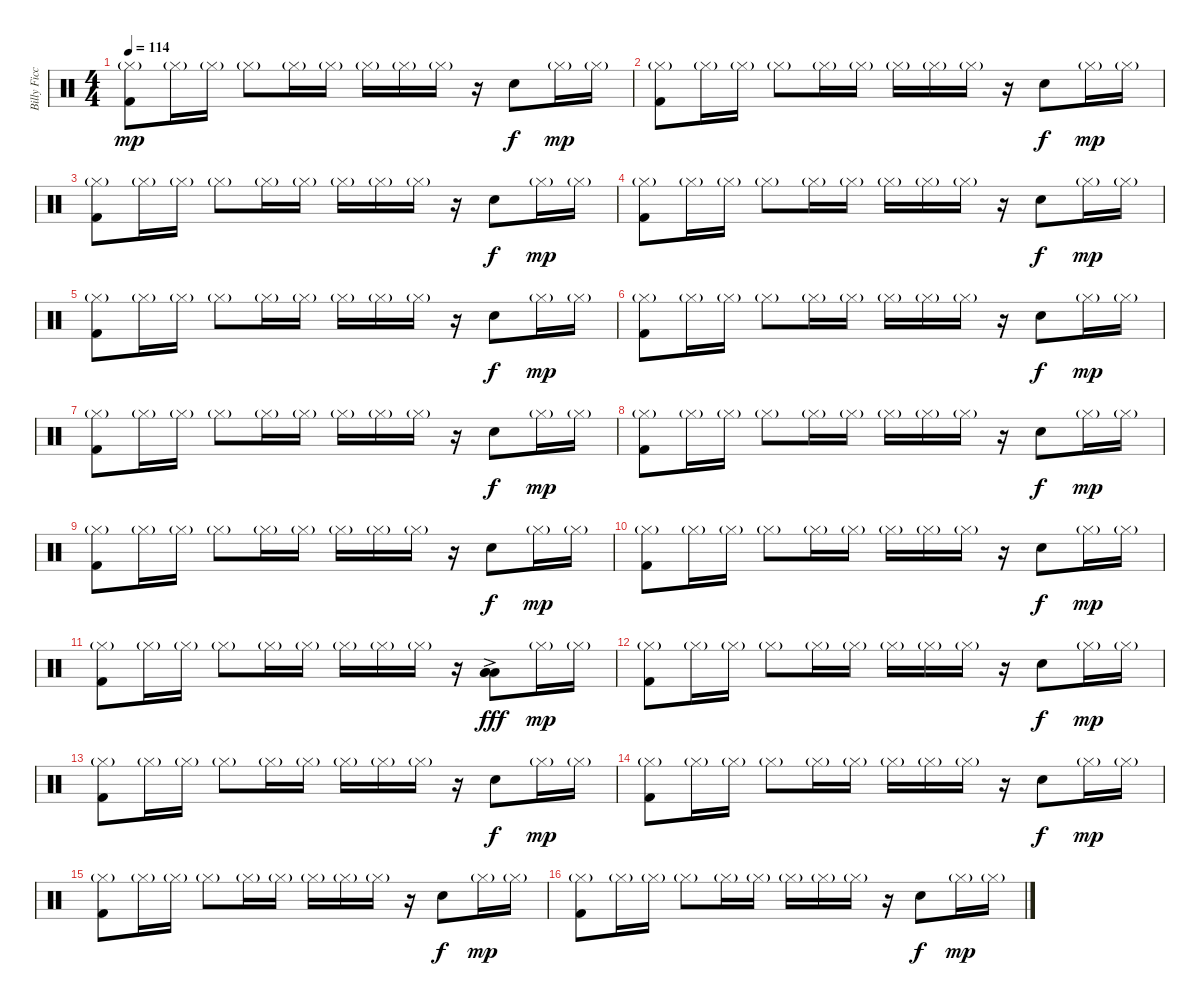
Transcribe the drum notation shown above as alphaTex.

\track ("Billy Ficca" "Billy Ficc") {instrument percussion}
\staff {score}
\articulation defaults
\ts (4 4)
\tempo 114
\clef neutral
\ks c
("Hi-Hat (closed)"{g} "Kick (hit) 2").8{dy mp} "Hi-Hat (closed)"{g}.16 "Hi-Hat (closed)"{g}.16 "Hi-Hat (closed)"{g}.8 "Hi-Hat (closed)"{g}.16 "Hi-Hat (closed)"{g}.16 "Hi-Hat (closed)"{g}.16 "Hi-Hat (closed)"{g}.16 "Hi-Hat (closed)"{g}.16 r.16 "Electric Snare (hit)".8{dy f} "Hi-Hat (closed)"{g}.16{dy mp} "Hi-Hat (closed)"{g}.16 |
("Hi-Hat (closed)"{g} "Kick (hit) 2").8 "Hi-Hat (closed)"{g}.16 "Hi-Hat (closed)"{g}.16 "Hi-Hat (closed)"{g}.8 "Hi-Hat (closed)"{g}.16 "Hi-Hat (closed)"{g}.16 "Hi-Hat (closed)"{g}.16 "Hi-Hat (closed)"{g}.16 "Hi-Hat (closed)"{g}.16 r.16 "Electric Snare (hit)".8{dy f} "Hi-Hat (closed)"{g}.16{dy mp} "Hi-Hat (closed)"{g}.16 |
("Hi-Hat (closed)"{g} "Kick (hit) 2").8 "Hi-Hat (closed)"{g}.16 "Hi-Hat (closed)"{g}.16 "Hi-Hat (closed)"{g}.8 "Hi-Hat (closed)"{g}.16 "Hi-Hat (closed)"{g}.16 "Hi-Hat (closed)"{g}.16 "Hi-Hat (closed)"{g}.16 "Hi-Hat (closed)"{g}.16 r.16 "Electric Snare (hit)".8{dy f} "Hi-Hat (closed)"{g}.16{dy mp} "Hi-Hat (closed)"{g}.16 |
("Hi-Hat (closed)"{g} "Kick (hit) 2").8 "Hi-Hat (closed)"{g}.16 "Hi-Hat (closed)"{g}.16 "Hi-Hat (closed)"{g}.8 "Hi-Hat (closed)"{g}.16 "Hi-Hat (closed)"{g}.16 "Hi-Hat (closed)"{g}.16 "Hi-Hat (closed)"{g}.16 "Hi-Hat (closed)"{g}.16 r.16 "Electric Snare (hit)".8{dy f} "Hi-Hat (closed)"{g}.16{dy mp} "Hi-Hat (closed)"{g}.16 |
("Hi-Hat (closed)"{g} "Kick (hit) 2").8 "Hi-Hat (closed)"{g}.16 "Hi-Hat (closed)"{g}.16 "Hi-Hat (closed)"{g}.8 "Hi-Hat (closed)"{g}.16 "Hi-Hat (closed)"{g}.16 "Hi-Hat (closed)"{g}.16 "Hi-Hat (closed)"{g}.16 "Hi-Hat (closed)"{g}.16 r.16 "Electric Snare (hit)".8{dy f} "Hi-Hat (closed)"{g}.16{dy mp} "Hi-Hat (closed)"{g}.16 |
("Hi-Hat (closed)"{g} "Kick (hit) 2").8 "Hi-Hat (closed)"{g}.16 "Hi-Hat (closed)"{g}.16 "Hi-Hat (closed)"{g}.8 "Hi-Hat (closed)"{g}.16 "Hi-Hat (closed)"{g}.16 "Hi-Hat (closed)"{g}.16 "Hi-Hat (closed)"{g}.16 "Hi-Hat (closed)"{g}.16 r.16 "Electric Snare (hit)".8{dy f} "Hi-Hat (closed)"{g}.16{dy mp} "Hi-Hat (closed)"{g}.16 |
("Hi-Hat (closed)"{g} "Kick (hit) 2").8 "Hi-Hat (closed)"{g}.16 "Hi-Hat (closed)"{g}.16 "Hi-Hat (closed)"{g}.8 "Hi-Hat (closed)"{g}.16 "Hi-Hat (closed)"{g}.16 "Hi-Hat (closed)"{g}.16 "Hi-Hat (closed)"{g}.16 "Hi-Hat (closed)"{g}.16 r.16 "Electric Snare (hit)".8{dy f} "Hi-Hat (closed)"{g}.16{dy mp} "Hi-Hat (closed)"{g}.16 |
("Hi-Hat (closed)"{g} "Kick (hit) 2").8 "Hi-Hat (closed)"{g}.16 "Hi-Hat (closed)"{g}.16 "Hi-Hat (closed)"{g}.8 "Hi-Hat (closed)"{g}.16 "Hi-Hat (closed)"{g}.16 "Hi-Hat (closed)"{g}.16 "Hi-Hat (closed)"{g}.16 "Hi-Hat (closed)"{g}.16 r.16 "Electric Snare (hit)".8{dy f} "Hi-Hat (closed)"{g}.16{dy mp} "Hi-Hat (closed)"{g}.16 |
("Hi-Hat (closed)"{g} "Kick (hit) 2").8 "Hi-Hat (closed)"{g}.16 "Hi-Hat (closed)"{g}.16 "Hi-Hat (closed)"{g}.8 "Hi-Hat (closed)"{g}.16 "Hi-Hat (closed)"{g}.16 "Hi-Hat (closed)"{g}.16 "Hi-Hat (closed)"{g}.16 "Hi-Hat (closed)"{g}.16 r.16 "Electric Snare (hit)".8{dy f} "Hi-Hat (closed)"{g}.16{dy mp} "Hi-Hat (closed)"{g}.16 |
("Hi-Hat (closed)"{g} "Kick (hit) 2").8 "Hi-Hat (closed)"{g}.16 "Hi-Hat (closed)"{g}.16 "Hi-Hat (closed)"{g}.8 "Hi-Hat (closed)"{g}.16 "Hi-Hat (closed)"{g}.16 "Hi-Hat (closed)"{g}.16 "Hi-Hat (closed)"{g}.16 "Hi-Hat (closed)"{g}.16 r.16 "Electric Snare (hit)".8{dy f} "Hi-Hat (closed)"{g}.16{dy mp} "Hi-Hat (closed)"{g}.16 |
("Hi-Hat (closed)"{g} "Kick (hit) 2").8 "Hi-Hat (closed)"{g}.16 "Hi-Hat (closed)"{g}.16 "Hi-Hat (closed)"{g}.8 "Hi-Hat (closed)"{g}.16 "Hi-Hat (closed)"{g}.16 "Hi-Hat (closed)"{g}.16 "Hi-Hat (closed)"{g}.16 "Hi-Hat (closed)"{g}.16 r.16 ("Low Floor Tom (hit)" "Low Floor Tom (hit)" "Low Floor Tom (hit)"{ac}).8{dy fff} "Hi-Hat (closed)"{g}.16{dy mp} "Hi-Hat (closed)"{g}.16 |
("Hi-Hat (closed)"{g} "Kick (hit) 2").8 "Hi-Hat (closed)"{g}.16 "Hi-Hat (closed)"{g}.16 "Hi-Hat (closed)"{g}.8 "Hi-Hat (closed)"{g}.16 "Hi-Hat (closed)"{g}.16 "Hi-Hat (closed)"{g}.16 "Hi-Hat (closed)"{g}.16 "Hi-Hat (closed)"{g}.16 r.16 "Electric Snare (hit)".8{dy f} "Hi-Hat (closed)"{g}.16{dy mp} "Hi-Hat (closed)"{g}.16 |
("Hi-Hat (closed)"{g} "Kick (hit) 2").8 "Hi-Hat (closed)"{g}.16 "Hi-Hat (closed)"{g}.16 "Hi-Hat (closed)"{g}.8 "Hi-Hat (closed)"{g}.16 "Hi-Hat (closed)"{g}.16 "Hi-Hat (closed)"{g}.16 "Hi-Hat (closed)"{g}.16 "Hi-Hat (closed)"{g}.16 r.16 "Electric Snare (hit)".8{dy f} "Hi-Hat (closed)"{g}.16{dy mp} "Hi-Hat (closed)"{g}.16 |
("Hi-Hat (closed)"{g} "Kick (hit) 2").8 "Hi-Hat (closed)"{g}.16 "Hi-Hat (closed)"{g}.16 "Hi-Hat (closed)"{g}.8 "Hi-Hat (closed)"{g}.16 "Hi-Hat (closed)"{g}.16 "Hi-Hat (closed)"{g}.16 "Hi-Hat (closed)"{g}.16 "Hi-Hat (closed)"{g}.16 r.16 "Electric Snare (hit)".8{dy f} "Hi-Hat (closed)"{g}.16{dy mp} "Hi-Hat (closed)"{g}.16 |
("Hi-Hat (closed)"{g} "Kick (hit) 2").8 "Hi-Hat (closed)"{g}.16 "Hi-Hat (closed)"{g}.16 "Hi-Hat (closed)"{g}.8 "Hi-Hat (closed)"{g}.16 "Hi-Hat (closed)"{g}.16 "Hi-Hat (closed)"{g}.16 "Hi-Hat (closed)"{g}.16 "Hi-Hat (closed)"{g}.16 r.16 "Electric Snare (hit)".8{dy f} "Hi-Hat (closed)"{g}.16{dy mp} "Hi-Hat (closed)"{g}.16 |
("Hi-Hat (closed)"{g} "Kick (hit) 2").8 "Hi-Hat (closed)"{g}.16 "Hi-Hat (closed)"{g}.16 "Hi-Hat (closed)"{g}.8 "Hi-Hat (closed)"{g}.16 "Hi-Hat (closed)"{g}.16 "Hi-Hat (closed)"{g}.16 "Hi-Hat (closed)"{g}.16 "Hi-Hat (closed)"{g}.16 r.16 "Electric Snare (hit)".8{dy f} "Hi-Hat (closed)"{g}.16{dy mp} "Hi-Hat (closed)"{g}.16
